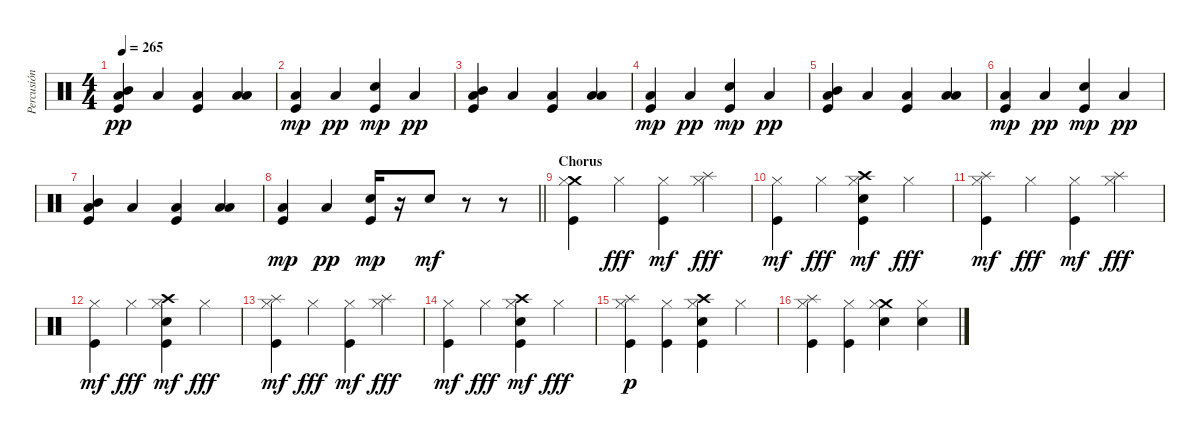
\track ("Percusión" "Percusión") {instrument percussion}
\staff {score}
\articulation defaults
\ts (4 4)
\tempo 265
\clef neutral
\ks c
("Mid Tom (hit)" "Low Floor Tom (hit)" "Kick (hit)").4{dy pp} "Low Floor Tom (hit)".4 ("Low Floor Tom (hit)" "Kick (hit)").4 ("Low Tom (hit)" "Low Floor Tom (hit)").4 |
("Low Floor Tom (hit)" "Kick (hit)").4{dy mp} "Low Floor Tom (hit)".4{dy pp} ("Electric Snare (hit)" "Kick (hit)").4{dy mp} "Low Floor Tom (hit)".4{dy pp} |
("Mid Tom (hit)" "Low Floor Tom (hit)" "Kick (hit)").4 "Low Floor Tom (hit)".4 ("Low Floor Tom (hit)" "Kick (hit)").4 ("Low Tom (hit)" "Low Floor Tom (hit)").4 |
("Low Floor Tom (hit)" "Kick (hit)").4{dy mp} "Low Floor Tom (hit)".4{dy pp} ("Electric Snare (hit)" "Kick (hit)").4{dy mp} "Low Floor Tom (hit)".4{dy pp} |
("Mid Tom (hit)" "Low Floor Tom (hit)" "Kick (hit)").4 "Low Floor Tom (hit)".4 ("Low Floor Tom (hit)" "Kick (hit)").4 ("Low Tom (hit)" "Low Floor Tom (hit)").4 |
("Low Floor Tom (hit)" "Kick (hit)").4{dy mp} "Low Floor Tom (hit)".4{dy pp} ("Electric Snare (hit)" "Kick (hit)").4{dy mp} "Low Floor Tom (hit)".4{dy pp} |
("Mid Tom (hit)" "Low Floor Tom (hit)" "Kick (hit)").4 "Low Floor Tom (hit)".4 ("Low Floor Tom (hit)" "Kick (hit)").4 ("Low Tom (hit)" "Low Floor Tom (hit)").4 |
\barLineRight lightlight
("Low Floor Tom (hit)" "Kick (hit)").4{dy mp} "Low Floor Tom (hit)".4{dy pp} ("Electric Snare (hit)" "Kick (hit)").16{dy mp} r.16 "Electric Snare (hit)".8{dy mf} r.8 r.8 |
\section ("" "Chorus")
("Crash medium (hit)" "Hi-Hat (closed)" "Kick (hit)").4 "Hi-Hat (closed)".4{dy fff} ("Hi-Hat (closed)" "Kick (hit)").4{dy mf} ("Splash (hit)" "Hi-Hat (closed)").4{dy fff} |
("Hi-Hat (closed)" "Kick (hit)").4{dy mf} "Hi-Hat (closed)".4{dy fff} ("Crash high (hit)" "Electric Snare (hit)" "Hi-Hat (closed)" "Kick (hit)").4{dy mf} "Hi-Hat (closed)".4{dy fff} |
("Splash (hit)" "Hi-Hat (closed)" "Kick (hit)").4{dy mf} "Hi-Hat (closed)".4{dy fff} ("Hi-Hat (closed)" "Kick (hit)").4{dy mf} ("Splash (hit)" "Hi-Hat (closed)").4{dy fff} |
("Hi-Hat (closed)" "Kick (hit)").4{dy mf} "Hi-Hat (closed)".4{dy fff} ("Crash high (hit)" "Electric Snare (hit)" "Hi-Hat (closed)" "Kick (hit)").4{dy mf} "Hi-Hat (closed)".4{dy fff} |
("Splash (hit)" "Hi-Hat (closed)" "Kick (hit)").4{dy mf} "Hi-Hat (closed)".4{dy fff} ("Hi-Hat (closed)" "Kick (hit)").4{dy mf} ("Splash (hit)" "Hi-Hat (closed)").4{dy fff} |
("Hi-Hat (closed)" "Kick (hit)").4{dy mf} "Hi-Hat (closed)".4{dy fff} ("Crash high (hit)" "Electric Snare (hit)" "Hi-Hat (closed)" "Kick (hit)").4{dy mf} "Hi-Hat (closed)".4{dy fff} |
("Splash (hit)" "Hi-Hat (closed)" "Kick (hit)").4{dy p} ("Hi-Hat (closed)" "Kick (hit)").4 ("Crash high (hit)" "Electric Snare (hit)" "Hi-Hat (closed)" "Kick (hit)").4 "Hi-Hat (closed)".4 |
("Splash (hit)" "Hi-Hat (closed)" "Kick (hit)").4 ("Hi-Hat (closed)" "Kick (hit)").4 ("Crash medium (hit)" "Electric Snare (hit)" "Hi-Hat (closed)").4 ("Electric Snare (hit)" "Hi-Hat (closed)").4
